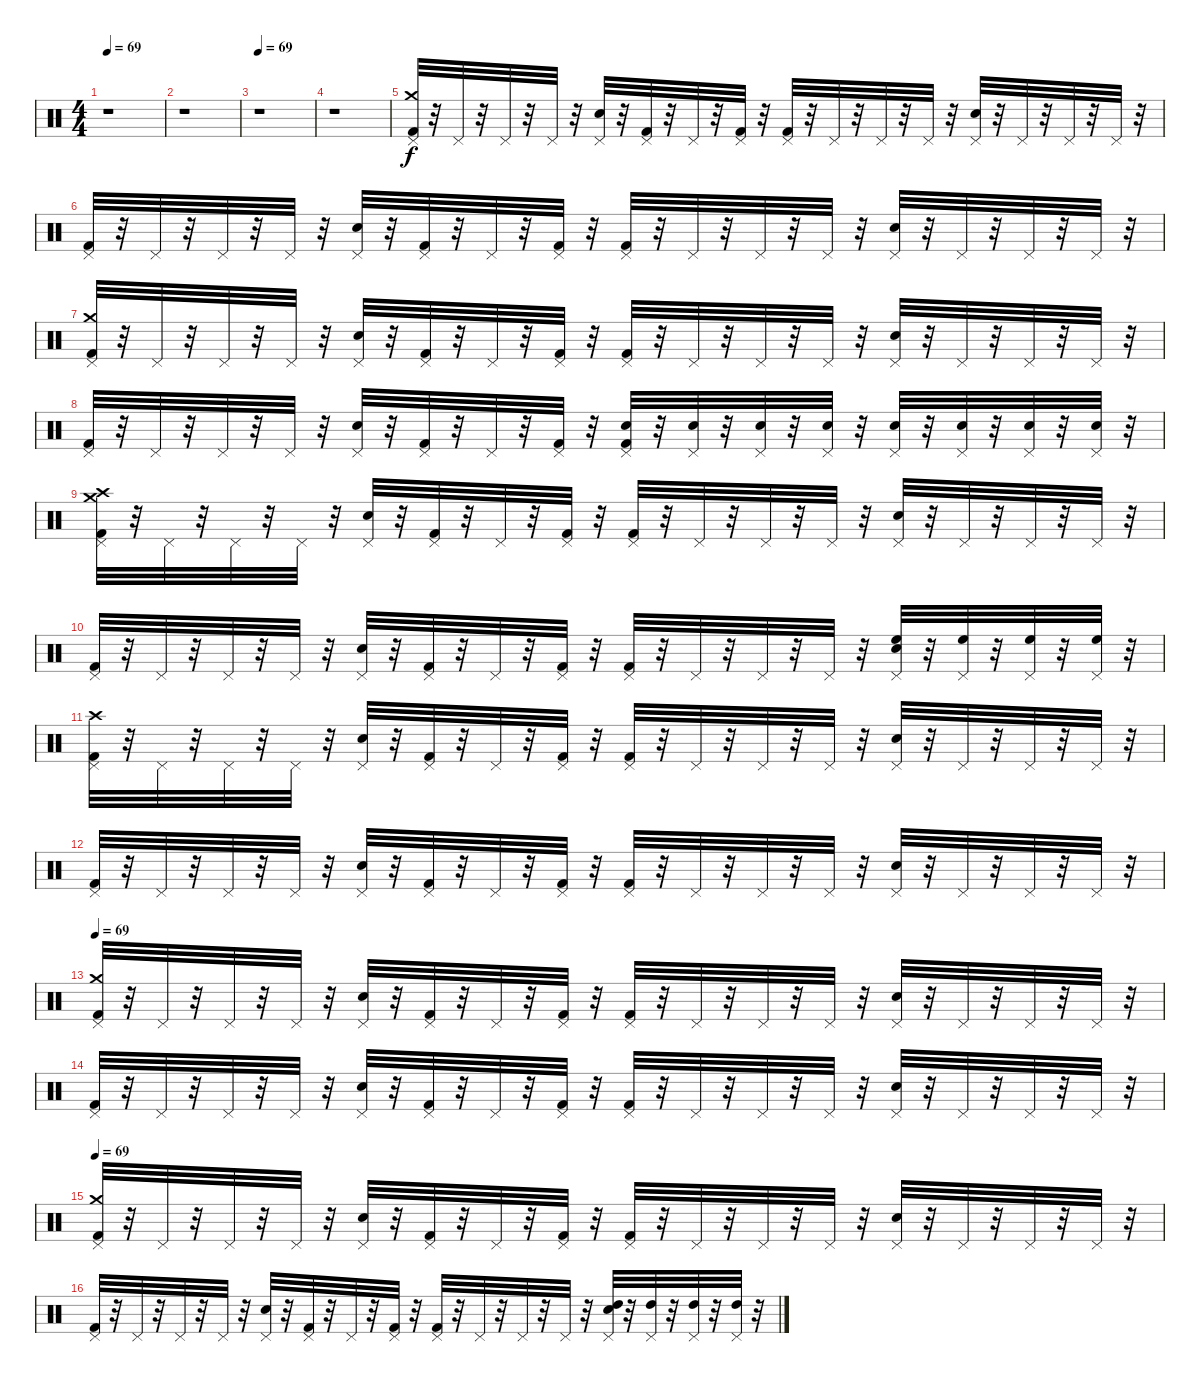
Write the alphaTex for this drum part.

\track "" {instrument percussion}
\staff {score}
\articulation defaults
\ts (4 4)
\tempo 69
\clef neutral
\ks c
r.1{dy f} |
r.1 |
\tempo 69
r.1 |
r.1 |
("Kick (hit) 2" "Crash medium (hit)" "Pedal Hi-Hat (hit)").32 r.32 "Pedal Hi-Hat (hit)".32 r.32 "Pedal Hi-Hat (hit)".32 r.32 "Pedal Hi-Hat (hit)".32 r.32 ("Electric Snare (hit)" "Pedal Hi-Hat (hit)").32 r.32 ("Pedal Hi-Hat (hit)" "Kick (hit) 2").32 r.32 "Pedal Hi-Hat (hit)".32 r.32 ("Pedal Hi-Hat (hit)" "Kick (hit) 2").32 r.32 ("Kick (hit) 2" "Pedal Hi-Hat (hit)").32 r.32 "Pedal Hi-Hat (hit)".32 r.32 "Pedal Hi-Hat (hit)".32 r.32 "Pedal Hi-Hat (hit)".32 r.32 ("Pedal Hi-Hat (hit)" "Electric Snare (hit)").32 r.32 "Pedal Hi-Hat (hit)".32 r.32 "Pedal Hi-Hat (hit)".32 r.32 "Pedal Hi-Hat (hit)".32 r.32 |
("Kick (hit) 2" "Pedal Hi-Hat (hit)").32 r.32 "Pedal Hi-Hat (hit)".32 r.32 "Pedal Hi-Hat (hit)".32 r.32 "Pedal Hi-Hat (hit)".32 r.32 ("Pedal Hi-Hat (hit)" "Electric Snare (hit)").32 r.32 ("Pedal Hi-Hat (hit)" "Kick (hit) 2").32 r.32 "Pedal Hi-Hat (hit)".32 r.32 ("Pedal Hi-Hat (hit)" "Kick (hit) 2").32 r.32 ("Pedal Hi-Hat (hit)" "Kick (hit) 2").32 r.32 "Pedal Hi-Hat (hit)".32 r.32 "Pedal Hi-Hat (hit)".32 r.32 "Pedal Hi-Hat (hit)".32 r.32 ("Pedal Hi-Hat (hit)" "Electric Snare (hit)").32 r.32 "Pedal Hi-Hat (hit)".32 r.32 "Pedal Hi-Hat (hit)".32 r.32 "Pedal Hi-Hat (hit)".32 r.32 |
("Pedal Hi-Hat (hit)" "Crash medium (hit)" "Kick (hit) 2").32 r.32 "Pedal Hi-Hat (hit)".32 r.32 "Pedal Hi-Hat (hit)".32 r.32 "Pedal Hi-Hat (hit)".32 r.32 ("Pedal Hi-Hat (hit)" "Electric Snare (hit)").32 r.32 ("Pedal Hi-Hat (hit)" "Kick (hit) 2").32 r.32 "Pedal Hi-Hat (hit)".32 r.32 ("Pedal Hi-Hat (hit)" "Kick (hit) 2").32 r.32 ("Pedal Hi-Hat (hit)" "Kick (hit) 2").32 r.32 "Pedal Hi-Hat (hit)".32 r.32 "Pedal Hi-Hat (hit)".32 r.32 "Pedal Hi-Hat (hit)".32 r.32 ("Pedal Hi-Hat (hit)" "Electric Snare (hit)").32 r.32 "Pedal Hi-Hat (hit)".32 r.32 "Pedal Hi-Hat (hit)".32 r.32 "Pedal Hi-Hat (hit)".32 r.32 |
("Pedal Hi-Hat (hit)" "Kick (hit) 2").32 r.32 "Pedal Hi-Hat (hit)".32 r.32 "Pedal Hi-Hat (hit)".32 r.32 "Pedal Hi-Hat (hit)".32 r.32 ("Pedal Hi-Hat (hit)" "Electric Snare (hit)").32 r.32 ("Pedal Hi-Hat (hit)" "Kick (hit) 2").32 r.32 "Pedal Hi-Hat (hit)".32 r.32 ("Pedal Hi-Hat (hit)" "Kick (hit) 2").32 r.32 ("Snare (hit) 2" "Pedal Hi-Hat (hit)" "Kick (hit) 2").32 r.32 ("Snare (hit) 2" "Pedal Hi-Hat (hit)").32 r.32 ("Snare (hit) 2" "Pedal Hi-Hat (hit)").32 r.32 ("Pedal Hi-Hat (hit)" "Snare (hit) 2").32 r.32 ("Snare (hit) 2" "Pedal Hi-Hat (hit)").32 r.32 ("Pedal Hi-Hat (hit)" "Snare (hit) 2").32 r.32 ("Pedal Hi-Hat (hit)" "Snare (hit) 2").32 r.32 ("Pedal Hi-Hat (hit)" "Snare (hit) 2").32 r.32 |
("Crash medium (hit)" "Pedal Hi-Hat (hit)" "Kick (hit) 2" "Crash high (hit)").32 r.32 "Pedal Hi-Hat (hit)".32 r.32 "Pedal Hi-Hat (hit)".32 r.32 "Pedal Hi-Hat (hit)".32 r.32 ("Pedal Hi-Hat (hit)" "Electric Snare (hit)").32 r.32 ("Pedal Hi-Hat (hit)" "Kick (hit) 2").32 r.32 "Pedal Hi-Hat (hit)".32 r.32 ("Pedal Hi-Hat (hit)" "Kick (hit) 2").32 r.32 ("Pedal Hi-Hat (hit)" "Kick (hit) 2").32 r.32 "Pedal Hi-Hat (hit)".32 r.32 "Pedal Hi-Hat (hit)".32 r.32 "Pedal Hi-Hat (hit)".32 r.32 ("Pedal Hi-Hat (hit)" "Electric Snare (hit)").32 r.32 "Pedal Hi-Hat (hit)".32 r.32 "Pedal Hi-Hat (hit)".32 r.32 "Pedal Hi-Hat (hit)".32 r.32 |
("Pedal Hi-Hat (hit)" "Kick (hit) 2").32 r.32 "Pedal Hi-Hat (hit)".32 r.32 "Pedal Hi-Hat (hit)".32 r.32 "Pedal Hi-Hat (hit)".32 r.32 ("Pedal Hi-Hat (hit)" "Electric Snare (hit)").32 r.32 ("Pedal Hi-Hat (hit)" "Kick (hit) 2").32 r.32 "Pedal Hi-Hat (hit)".32 r.32 ("Pedal Hi-Hat (hit)" "Kick (hit) 2").32 r.32 ("Pedal Hi-Hat (hit)" "Kick (hit) 2").32 r.32 "Pedal Hi-Hat (hit)".32 r.32 "Pedal Hi-Hat (hit)".32 r.32 "Pedal Hi-Hat (hit)".32 r.32 ("Pedal Hi-Hat (hit)" "High Floor Tom (hit)" "Electric Snare (hit)").32 r.32 ("Pedal Hi-Hat (hit)" "High Floor Tom (hit)").32 r.32 ("Pedal Hi-Hat (hit)" "High Floor Tom (hit)").32 r.32 ("Pedal Hi-Hat (hit)" "High Floor Tom (hit)").32 r.32 |
("Pedal Hi-Hat (hit)" "Crash high (hit)" "Kick (hit) 2").32 r.32 "Pedal Hi-Hat (hit)".32 r.32 "Pedal Hi-Hat (hit)".32 r.32 "Pedal Hi-Hat (hit)".32 r.32 ("Pedal Hi-Hat (hit)" "Electric Snare (hit)").32 r.32 ("Pedal Hi-Hat (hit)" "Kick (hit) 2").32 r.32 "Pedal Hi-Hat (hit)".32 r.32 ("Pedal Hi-Hat (hit)" "Kick (hit) 2").32 r.32 ("Pedal Hi-Hat (hit)" "Kick (hit) 2").32 r.32 "Pedal Hi-Hat (hit)".32 r.32 "Pedal Hi-Hat (hit)".32 r.32 "Pedal Hi-Hat (hit)".32 r.32 ("Pedal Hi-Hat (hit)" "Electric Snare (hit)").32 r.32 "Pedal Hi-Hat (hit)".32 r.32 "Pedal Hi-Hat (hit)".32 r.32 "Pedal Hi-Hat (hit)".32 r.32 |
("Pedal Hi-Hat (hit)" "Kick (hit) 2").32 r.32 "Pedal Hi-Hat (hit)".32 r.32 "Pedal Hi-Hat (hit)".32 r.32 "Pedal Hi-Hat (hit)".32 r.32 ("Pedal Hi-Hat (hit)" "Electric Snare (hit)").32 r.32 ("Pedal Hi-Hat (hit)" "Kick (hit) 2").32 r.32 "Pedal Hi-Hat (hit)".32 r.32 ("Pedal Hi-Hat (hit)" "Kick (hit) 2").32 r.32 ("Pedal Hi-Hat (hit)" "Kick (hit) 2").32 r.32 "Pedal Hi-Hat (hit)".32 r.32 "Pedal Hi-Hat (hit)".32 r.32 "Pedal Hi-Hat (hit)".32 r.32 ("Pedal Hi-Hat (hit)" "Electric Snare (hit)").32 r.32 "Pedal Hi-Hat (hit)".32 r.32 "Pedal Hi-Hat (hit)".32 r.32 "Pedal Hi-Hat (hit)".32 r.32 |
\tempo 69
("Pedal Hi-Hat (hit)" "Kick (hit) 2" "Crash medium (hit)").32 r.32 "Pedal Hi-Hat (hit)".32 r.32 "Pedal Hi-Hat (hit)".32 r.32 "Pedal Hi-Hat (hit)".32 r.32 ("Pedal Hi-Hat (hit)" "Electric Snare (hit)").32 r.32 ("Pedal Hi-Hat (hit)" "Kick (hit) 2").32 r.32 "Pedal Hi-Hat (hit)".32 r.32 ("Pedal Hi-Hat (hit)" "Kick (hit) 2").32 r.32 ("Pedal Hi-Hat (hit)" "Kick (hit) 2").32 r.32 "Pedal Hi-Hat (hit)".32 r.32 "Pedal Hi-Hat (hit)".32 r.32 "Pedal Hi-Hat (hit)".32 r.32 ("Pedal Hi-Hat (hit)" "Electric Snare (hit)").32 r.32 "Pedal Hi-Hat (hit)".32 r.32 "Pedal Hi-Hat (hit)".32 r.32 "Pedal Hi-Hat (hit)".32 r.32 |
("Pedal Hi-Hat (hit)" "Kick (hit) 2").32 r.32 "Pedal Hi-Hat (hit)".32 r.32 "Pedal Hi-Hat (hit)".32 r.32 "Pedal Hi-Hat (hit)".32 r.32 ("Pedal Hi-Hat (hit)" "Electric Snare (hit)").32 r.32 ("Pedal Hi-Hat (hit)" "Kick (hit) 2").32 r.32 "Pedal Hi-Hat (hit)".32 r.32 ("Pedal Hi-Hat (hit)" "Kick (hit) 2").32 r.32 ("Pedal Hi-Hat (hit)" "Kick (hit) 2").32 r.32 "Pedal Hi-Hat (hit)".32 r.32 "Pedal Hi-Hat (hit)".32 r.32 "Pedal Hi-Hat (hit)".32 r.32 ("Pedal Hi-Hat (hit)" "Electric Snare (hit)").32 r.32 "Pedal Hi-Hat (hit)".32 r.32 "Pedal Hi-Hat (hit)".32 r.32 "Pedal Hi-Hat (hit)".32 r.32 |
\tempo 69
("Pedal Hi-Hat (hit)" "Crash medium (hit)" "Kick (hit) 2").32 r.32 "Pedal Hi-Hat (hit)".32 r.32 "Pedal Hi-Hat (hit)".32 r.32 "Pedal Hi-Hat (hit)".32 r.32 ("Pedal Hi-Hat (hit)" "Electric Snare (hit)").32 r.32 ("Pedal Hi-Hat (hit)" "Kick (hit) 2").32 r.32 "Pedal Hi-Hat (hit)".32 r.32 ("Pedal Hi-Hat (hit)" "Kick (hit) 2").32 r.32 ("Pedal Hi-Hat (hit)" "Kick (hit) 2").32 r.32 "Pedal Hi-Hat (hit)".32 r.32 "Pedal Hi-Hat (hit)".32 r.32 "Pedal Hi-Hat (hit)".32 r.32 ("Pedal Hi-Hat (hit)" "Electric Snare (hit)").32 r.32 "Pedal Hi-Hat (hit)".32 r.32 "Pedal Hi-Hat (hit)".32 r.32 "Pedal Hi-Hat (hit)".32 r.32 |
("Pedal Hi-Hat (hit)" "Kick (hit) 2").32 r.32 "Pedal Hi-Hat (hit)".32 r.32 "Pedal Hi-Hat (hit)".32 r.32 "Pedal Hi-Hat (hit)".32 r.32 ("Pedal Hi-Hat (hit)" "Electric Snare (hit)").32 r.32 ("Pedal Hi-Hat (hit)" "Kick (hit) 2").32 r.32 "Pedal Hi-Hat (hit)".32 r.32 ("Pedal Hi-Hat (hit)" "Kick (hit) 2").32 r.32 ("Pedal Hi-Hat (hit)" "Kick (hit) 2").32 r.32 "Pedal Hi-Hat (hit)".32 r.32 "Pedal Hi-Hat (hit)".32 r.32 "Pedal Hi-Hat (hit)".32 r.32 ("Electric Snare (hit)" "High Tom (hit)" "Pedal Hi-Hat (hit)").32 r.32 ("High Tom (hit)" "Pedal Hi-Hat (hit)").32 r.32 ("High Tom (hit)" "Pedal Hi-Hat (hit)").32 r.32 ("High Tom (hit)" "Pedal Hi-Hat (hit)").32 r.32
